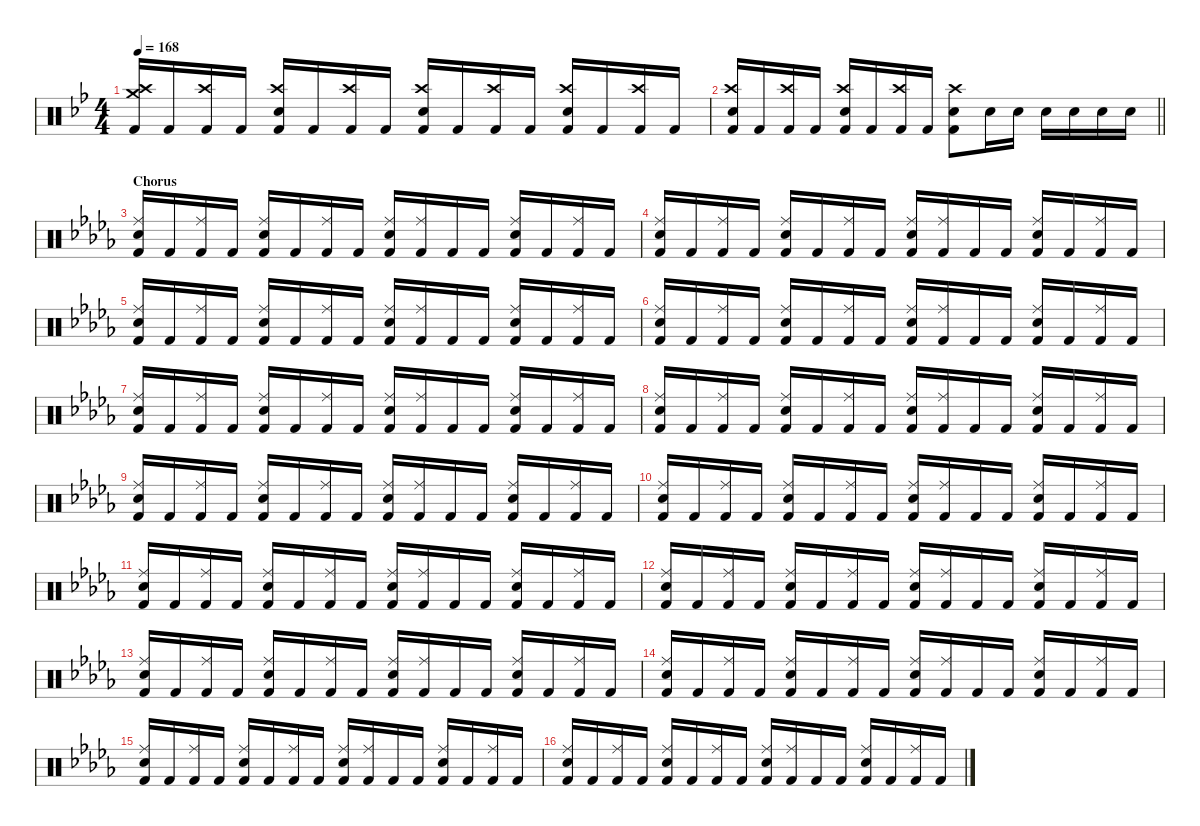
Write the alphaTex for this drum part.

\defaultSystemsLayout 4
\hideDynamics
\bracketExtendMode nobrackets
\singleTrackTrackNamePolicy hidden
\multiTrackTrackNamePolicy hidden
\firstSystemTrackNameMode fullname
\firstSystemTrackNameOrientation horizontal
\otherSystemsTrackNameOrientation horizontal
\track ("Percussion" "drm.") {instrument percussion}
\staff {score}
\articulation defaults
\ts (4 4)
\tempo 168
\clef neutral
\ks bb
("Crash high (hit)"{acc forcenatural} "Crash medium (hit)"{acc forcenatural} "Kick (hit) 2"{acc forcenatural}).16{dy f beam Up} "Kick (hit) 2"{acc forcenatural}.16{beam Up} ("Crash high (hit)"{acc forcenatural} "Kick (hit) 2"{acc forcenatural}).16{beam Up} "Kick (hit) 2"{acc forcenatural}.16{beam Up} ("Crash high (hit)"{acc forcenatural} "Snare (hit) 2"{acc forcenatural} "Kick (hit) 2"{acc forcenatural}).16{beam Up} "Kick (hit) 2"{acc forcenatural}.16{beam Up} ("Crash high (hit)"{acc forcenatural} "Kick (hit) 2"{acc forcenatural}).16{beam Up} "Kick (hit) 2"{acc forcenatural}.16{beam Up} ("Crash high (hit)"{acc forcenatural} "Snare (hit) 2"{acc forcenatural} "Kick (hit) 2"{acc forcenatural}).16{beam Up} "Kick (hit) 2"{acc forcenatural}.16{beam Up} ("Crash high (hit)"{acc forcenatural} "Kick (hit) 2"{acc forcenatural}).16{beam Up} "Kick (hit) 2"{acc forcenatural}.16{beam Up} ("Crash high (hit)"{acc forcenatural} "Snare (hit) 2"{acc forcenatural} "Kick (hit) 2"{acc forcenatural}).16{beam Up} "Kick (hit) 2"{acc forcenatural}.16{beam Up} ("Crash high (hit)"{acc forcenatural} "Kick (hit) 2"{acc forcenatural}).16{beam Up} "Kick (hit) 2"{acc forcenatural}.16{beam Up} |
\barLineRight lightlight
("Crash high (hit)"{acc forcenatural} "Snare (hit) 2"{acc forcenatural} "Kick (hit) 2"{acc forcenatural}).16{beam Up} "Kick (hit) 2"{acc forcenatural}.16{beam Up} ("Crash high (hit)"{acc forcenatural} "Kick (hit) 2"{acc forcenatural}).16{beam Up} "Kick (hit) 2"{acc forcenatural}.16{beam Up} ("Crash high (hit)"{acc forcenatural} "Snare (hit) 2"{acc forcenatural} "Kick (hit) 2"{acc forcenatural}).16{beam Up} "Kick (hit) 2"{acc forcenatural}.16{beam Up} ("Crash high (hit)"{acc forcenatural} "Kick (hit) 2"{acc forcenatural}).16{beam Up} "Kick (hit) 2"{acc forcenatural}.16{beam Up} ("Crash high (hit)"{acc forcenatural} "Snare (hit) 2"{acc forcenatural} "Kick (hit) 2"{acc forcenatural}).8{beam Down} "Snare (hit) 2"{acc forcenatural}.16{beam Down} "Snare (hit) 2"{acc forcenatural}.16{beam Down} "Snare (hit) 2"{acc forcenatural}.16{beam Down} "Snare (hit) 2"{acc forcenatural}.16{beam Down} "Snare (hit) 2"{acc forcenatural}.16{beam Down} "Snare (hit) 2"{acc forcenatural}.16{beam Down} |
\section ("" "Chorus")
\ks db
("Ride (middle)"{acc forcenatural} "Snare (hit) 2"{acc forcenatural} "Kick (hit) 2"{acc forcenatural}).16{beam Up} "Kick (hit) 2"{acc forcenatural}.16{beam Up} ("Ride (middle)"{acc forcenatural} "Kick (hit) 2"{acc forcenatural}).16{beam Up} "Kick (hit) 2"{acc forcenatural}.16{beam Up} ("Ride (middle)"{acc forcenatural} "Snare (hit) 2"{acc forcenatural} "Kick (hit) 2"{acc forcenatural}).16{beam Up} "Kick (hit) 2"{acc forcenatural}.16{beam Up} ("Ride (middle)"{acc forcenatural} "Kick (hit) 2"{acc forcenatural}).16{beam Up} "Kick (hit) 2"{acc forcenatural}.16{beam Up} ("Ride (middle)"{acc forcenatural} "Snare (hit) 2"{acc forcenatural} "Kick (hit) 2"{acc forcenatural}).16{beam Up} ("Ride (middle)"{acc forcenatural} "Kick (hit) 2"{acc forcenatural}).16{beam Up} "Kick (hit) 2"{acc forcenatural}.16{beam Up} "Kick (hit) 2"{acc forcenatural}.16{beam Up} ("Ride (middle)"{acc forcenatural} "Snare (hit) 2"{acc forcenatural} "Kick (hit) 2"{acc forcenatural}).16{beam Up} "Kick (hit) 2"{acc forcenatural}.16{beam Up} ("Ride (middle)"{acc forcenatural} "Kick (hit) 2"{acc forcenatural}).16{beam Up} "Kick (hit) 2"{acc forcenatural}.16{beam Up} |
("Ride (middle)"{acc forcenatural} "Snare (hit) 2"{acc forcenatural} "Kick (hit) 2"{acc forcenatural}).16{beam Up} "Kick (hit) 2"{acc forcenatural}.16{beam Up} ("Ride (middle)"{acc forcenatural} "Kick (hit) 2"{acc forcenatural}).16{beam Up} "Kick (hit) 2"{acc forcenatural}.16{beam Up} ("Ride (middle)"{acc forcenatural} "Snare (hit) 2"{acc forcenatural} "Kick (hit) 2"{acc forcenatural}).16{beam Up} "Kick (hit) 2"{acc forcenatural}.16{beam Up} ("Ride (middle)"{acc forcenatural} "Kick (hit) 2"{acc forcenatural}).16{beam Up} "Kick (hit) 2"{acc forcenatural}.16{beam Up} ("Ride (middle)"{acc forcenatural} "Snare (hit) 2"{acc forcenatural} "Kick (hit) 2"{acc forcenatural}).16{beam Up} ("Ride (middle)"{acc forcenatural} "Kick (hit) 2"{acc forcenatural}).16{beam Up} "Kick (hit) 2"{acc forcenatural}.16{beam Up} "Kick (hit) 2"{acc forcenatural}.16{beam Up} ("Ride (middle)"{acc forcenatural} "Snare (hit) 2"{acc forcenatural} "Kick (hit) 2"{acc forcenatural}).16{beam Up} "Kick (hit) 2"{acc forcenatural}.16{beam Up} ("Ride (middle)"{acc forcenatural} "Kick (hit) 2"{acc forcenatural}).16{beam Up} "Kick (hit) 2"{acc forcenatural}.16{beam Up} |
("Ride (middle)"{acc forcenatural} "Snare (hit) 2"{acc forcenatural} "Kick (hit) 2"{acc forcenatural}).16{beam Up} "Kick (hit) 2"{acc forcenatural}.16{beam Up} ("Ride (middle)"{acc forcenatural} "Kick (hit) 2"{acc forcenatural}).16{beam Up} "Kick (hit) 2"{acc forcenatural}.16{beam Up} ("Ride (middle)"{acc forcenatural} "Snare (hit) 2"{acc forcenatural} "Kick (hit) 2"{acc forcenatural}).16{beam Up} "Kick (hit) 2"{acc forcenatural}.16{beam Up} ("Ride (middle)"{acc forcenatural} "Kick (hit) 2"{acc forcenatural}).16{beam Up} "Kick (hit) 2"{acc forcenatural}.16{beam Up} ("Ride (middle)"{acc forcenatural} "Snare (hit) 2"{acc forcenatural} "Kick (hit) 2"{acc forcenatural}).16{beam Up} ("Ride (middle)"{acc forcenatural} "Kick (hit) 2"{acc forcenatural}).16{beam Up} "Kick (hit) 2"{acc forcenatural}.16{beam Up} "Kick (hit) 2"{acc forcenatural}.16{beam Up} ("Ride (middle)"{acc forcenatural} "Snare (hit) 2"{acc forcenatural} "Kick (hit) 2"{acc forcenatural}).16{beam Up} "Kick (hit) 2"{acc forcenatural}.16{beam Up} ("Ride (middle)"{acc forcenatural} "Kick (hit) 2"{acc forcenatural}).16{beam Up} "Kick (hit) 2"{acc forcenatural}.16{beam Up} |
("Ride (middle)"{acc forcenatural} "Snare (hit) 2"{acc forcenatural} "Kick (hit) 2"{acc forcenatural}).16{beam Up} "Kick (hit) 2"{acc forcenatural}.16{beam Up} ("Ride (middle)"{acc forcenatural} "Kick (hit) 2"{acc forcenatural}).16{beam Up} "Kick (hit) 2"{acc forcenatural}.16{beam Up} ("Ride (middle)"{acc forcenatural} "Snare (hit) 2"{acc forcenatural} "Kick (hit) 2"{acc forcenatural}).16{beam Up} "Kick (hit) 2"{acc forcenatural}.16{beam Up} ("Ride (middle)"{acc forcenatural} "Kick (hit) 2"{acc forcenatural}).16{beam Up} "Kick (hit) 2"{acc forcenatural}.16{beam Up} ("Ride (middle)"{acc forcenatural} "Snare (hit) 2"{acc forcenatural} "Kick (hit) 2"{acc forcenatural}).16{beam Up} ("Ride (middle)"{acc forcenatural} "Kick (hit) 2"{acc forcenatural}).16{beam Up} "Kick (hit) 2"{acc forcenatural}.16{beam Up} "Kick (hit) 2"{acc forcenatural}.16{beam Up} ("Ride (middle)"{acc forcenatural} "Snare (hit) 2"{acc forcenatural} "Kick (hit) 2"{acc forcenatural}).16{beam Up} "Kick (hit) 2"{acc forcenatural}.16{beam Up} ("Ride (middle)"{acc forcenatural} "Kick (hit) 2"{acc forcenatural}).16{beam Up} "Kick (hit) 2"{acc forcenatural}.16{beam Up} |
("Ride (middle)"{acc forcenatural} "Snare (hit) 2"{acc forcenatural} "Kick (hit) 2"{acc forcenatural}).16{beam Up} "Kick (hit) 2"{acc forcenatural}.16{beam Up} ("Ride (middle)"{acc forcenatural} "Kick (hit) 2"{acc forcenatural}).16{beam Up} "Kick (hit) 2"{acc forcenatural}.16{beam Up} ("Ride (middle)"{acc forcenatural} "Snare (hit) 2"{acc forcenatural} "Kick (hit) 2"{acc forcenatural}).16{beam Up} "Kick (hit) 2"{acc forcenatural}.16{beam Up} ("Ride (middle)"{acc forcenatural} "Kick (hit) 2"{acc forcenatural}).16{beam Up} "Kick (hit) 2"{acc forcenatural}.16{beam Up} ("Ride (middle)"{acc forcenatural} "Snare (hit) 2"{acc forcenatural} "Kick (hit) 2"{acc forcenatural}).16{beam Up} ("Ride (middle)"{acc forcenatural} "Kick (hit) 2"{acc forcenatural}).16{beam Up} "Kick (hit) 2"{acc forcenatural}.16{beam Up} "Kick (hit) 2"{acc forcenatural}.16{beam Up} ("Ride (middle)"{acc forcenatural} "Snare (hit) 2"{acc forcenatural} "Kick (hit) 2"{acc forcenatural}).16{beam Up} "Kick (hit) 2"{acc forcenatural}.16{beam Up} ("Ride (middle)"{acc forcenatural} "Kick (hit) 2"{acc forcenatural}).16{beam Up} "Kick (hit) 2"{acc forcenatural}.16{beam Up} |
("Ride (middle)"{acc forcenatural} "Snare (hit) 2"{acc forcenatural} "Kick (hit) 2"{acc forcenatural}).16{beam Up} "Kick (hit) 2"{acc forcenatural}.16{beam Up} ("Ride (middle)"{acc forcenatural} "Kick (hit) 2"{acc forcenatural}).16{beam Up} "Kick (hit) 2"{acc forcenatural}.16{beam Up} ("Ride (middle)"{acc forcenatural} "Snare (hit) 2"{acc forcenatural} "Kick (hit) 2"{acc forcenatural}).16{beam Up} "Kick (hit) 2"{acc forcenatural}.16{beam Up} ("Ride (middle)"{acc forcenatural} "Kick (hit) 2"{acc forcenatural}).16{beam Up} "Kick (hit) 2"{acc forcenatural}.16{beam Up} ("Ride (middle)"{acc forcenatural} "Snare (hit) 2"{acc forcenatural} "Kick (hit) 2"{acc forcenatural}).16{beam Up} ("Ride (middle)"{acc forcenatural} "Kick (hit) 2"{acc forcenatural}).16{beam Up} "Kick (hit) 2"{acc forcenatural}.16{beam Up} "Kick (hit) 2"{acc forcenatural}.16{beam Up} ("Ride (middle)"{acc forcenatural} "Snare (hit) 2"{acc forcenatural} "Kick (hit) 2"{acc forcenatural}).16{beam Up} "Kick (hit) 2"{acc forcenatural}.16{beam Up} ("Ride (middle)"{acc forcenatural} "Kick (hit) 2"{acc forcenatural}).16{beam Up} "Kick (hit) 2"{acc forcenatural}.16{beam Up} |
("Ride (middle)"{acc forcenatural} "Snare (hit) 2"{acc forcenatural} "Kick (hit) 2"{acc forcenatural}).16{beam Up} "Kick (hit) 2"{acc forcenatural}.16{beam Up} ("Ride (middle)"{acc forcenatural} "Kick (hit) 2"{acc forcenatural}).16{beam Up} "Kick (hit) 2"{acc forcenatural}.16{beam Up} ("Ride (middle)"{acc forcenatural} "Snare (hit) 2"{acc forcenatural} "Kick (hit) 2"{acc forcenatural}).16{beam Up} "Kick (hit) 2"{acc forcenatural}.16{beam Up} ("Ride (middle)"{acc forcenatural} "Kick (hit) 2"{acc forcenatural}).16{beam Up} "Kick (hit) 2"{acc forcenatural}.16{beam Up} ("Ride (middle)"{acc forcenatural} "Snare (hit) 2"{acc forcenatural} "Kick (hit) 2"{acc forcenatural}).16{beam Up} ("Ride (middle)"{acc forcenatural} "Kick (hit) 2"{acc forcenatural}).16{beam Up} "Kick (hit) 2"{acc forcenatural}.16{beam Up} "Kick (hit) 2"{acc forcenatural}.16{beam Up} ("Ride (middle)"{acc forcenatural} "Snare (hit) 2"{acc forcenatural} "Kick (hit) 2"{acc forcenatural}).16{beam Up} "Kick (hit) 2"{acc forcenatural}.16{beam Up} ("Ride (middle)"{acc forcenatural} "Kick (hit) 2"{acc forcenatural}).16{beam Up} "Kick (hit) 2"{acc forcenatural}.16{beam Up} |
("Ride (middle)"{acc forcenatural} "Snare (hit) 2"{acc forcenatural} "Kick (hit) 2"{acc forcenatural}).16{beam Up} "Kick (hit) 2"{acc forcenatural}.16{beam Up} ("Ride (middle)"{acc forcenatural} "Kick (hit) 2"{acc forcenatural}).16{beam Up} "Kick (hit) 2"{acc forcenatural}.16{beam Up} ("Ride (middle)"{acc forcenatural} "Snare (hit) 2"{acc forcenatural} "Kick (hit) 2"{acc forcenatural}).16{beam Up} "Kick (hit) 2"{acc forcenatural}.16{beam Up} ("Ride (middle)"{acc forcenatural} "Kick (hit) 2"{acc forcenatural}).16{beam Up} "Kick (hit) 2"{acc forcenatural}.16{beam Up} ("Ride (middle)"{acc forcenatural} "Snare (hit) 2"{acc forcenatural} "Kick (hit) 2"{acc forcenatural}).16{beam Up} ("Ride (middle)"{acc forcenatural} "Kick (hit) 2"{acc forcenatural}).16{beam Up} "Kick (hit) 2"{acc forcenatural}.16{beam Up} "Kick (hit) 2"{acc forcenatural}.16{beam Up} ("Ride (middle)"{acc forcenatural} "Snare (hit) 2"{acc forcenatural} "Kick (hit) 2"{acc forcenatural}).16{beam Up} "Kick (hit) 2"{acc forcenatural}.16{beam Up} ("Ride (middle)"{acc forcenatural} "Kick (hit) 2"{acc forcenatural}).16{beam Up} "Kick (hit) 2"{acc forcenatural}.16{beam Up} |
("Ride (middle)"{acc forcenatural} "Snare (hit) 2"{acc forcenatural} "Kick (hit) 2"{acc forcenatural}).16{beam Up} "Kick (hit) 2"{acc forcenatural}.16{beam Up} ("Ride (middle)"{acc forcenatural} "Kick (hit) 2"{acc forcenatural}).16{beam Up} "Kick (hit) 2"{acc forcenatural}.16{beam Up} ("Ride (middle)"{acc forcenatural} "Snare (hit) 2"{acc forcenatural} "Kick (hit) 2"{acc forcenatural}).16{beam Up} "Kick (hit) 2"{acc forcenatural}.16{beam Up} ("Ride (middle)"{acc forcenatural} "Kick (hit) 2"{acc forcenatural}).16{beam Up} "Kick (hit) 2"{acc forcenatural}.16{beam Up} ("Ride (middle)"{acc forcenatural} "Snare (hit) 2"{acc forcenatural} "Kick (hit) 2"{acc forcenatural}).16{beam Up} ("Ride (middle)"{acc forcenatural} "Kick (hit) 2"{acc forcenatural}).16{beam Up} "Kick (hit) 2"{acc forcenatural}.16{beam Up} "Kick (hit) 2"{acc forcenatural}.16{beam Up} ("Ride (middle)"{acc forcenatural} "Snare (hit) 2"{acc forcenatural} "Kick (hit) 2"{acc forcenatural}).16{beam Up} "Kick (hit) 2"{acc forcenatural}.16{beam Up} ("Ride (middle)"{acc forcenatural} "Kick (hit) 2"{acc forcenatural}).16{beam Up} "Kick (hit) 2"{acc forcenatural}.16{beam Up} |
("Ride (middle)"{acc forcenatural} "Snare (hit) 2"{acc forcenatural} "Kick (hit) 2"{acc forcenatural}).16{beam Up} "Kick (hit) 2"{acc forcenatural}.16{beam Up} ("Ride (middle)"{acc forcenatural} "Kick (hit) 2"{acc forcenatural}).16{beam Up} "Kick (hit) 2"{acc forcenatural}.16{beam Up} ("Ride (middle)"{acc forcenatural} "Snare (hit) 2"{acc forcenatural} "Kick (hit) 2"{acc forcenatural}).16{beam Up} "Kick (hit) 2"{acc forcenatural}.16{beam Up} ("Ride (middle)"{acc forcenatural} "Kick (hit) 2"{acc forcenatural}).16{beam Up} "Kick (hit) 2"{acc forcenatural}.16{beam Up} ("Ride (middle)"{acc forcenatural} "Snare (hit) 2"{acc forcenatural} "Kick (hit) 2"{acc forcenatural}).16{beam Up} ("Ride (middle)"{acc forcenatural} "Kick (hit) 2"{acc forcenatural}).16{beam Up} "Kick (hit) 2"{acc forcenatural}.16{beam Up} "Kick (hit) 2"{acc forcenatural}.16{beam Up} ("Ride (middle)"{acc forcenatural} "Snare (hit) 2"{acc forcenatural} "Kick (hit) 2"{acc forcenatural}).16{beam Up} "Kick (hit) 2"{acc forcenatural}.16{beam Up} ("Ride (middle)"{acc forcenatural} "Kick (hit) 2"{acc forcenatural}).16{beam Up} "Kick (hit) 2"{acc forcenatural}.16{beam Up} |
("Ride (middle)"{acc forcenatural} "Snare (hit) 2"{acc forcenatural} "Kick (hit) 2"{acc forcenatural}).16{beam Up} "Kick (hit) 2"{acc forcenatural}.16{beam Up} ("Ride (middle)"{acc forcenatural} "Kick (hit) 2"{acc forcenatural}).16{beam Up} "Kick (hit) 2"{acc forcenatural}.16{beam Up} ("Ride (middle)"{acc forcenatural} "Snare (hit) 2"{acc forcenatural} "Kick (hit) 2"{acc forcenatural}).16{beam Up} "Kick (hit) 2"{acc forcenatural}.16{beam Up} ("Ride (middle)"{acc forcenatural} "Kick (hit) 2"{acc forcenatural}).16{beam Up} "Kick (hit) 2"{acc forcenatural}.16{beam Up} ("Ride (middle)"{acc forcenatural} "Snare (hit) 2"{acc forcenatural} "Kick (hit) 2"{acc forcenatural}).16{beam Up} ("Ride (middle)"{acc forcenatural} "Kick (hit) 2"{acc forcenatural}).16{beam Up} "Kick (hit) 2"{acc forcenatural}.16{beam Up} "Kick (hit) 2"{acc forcenatural}.16{beam Up} ("Ride (middle)"{acc forcenatural} "Snare (hit) 2"{acc forcenatural} "Kick (hit) 2"{acc forcenatural}).16{beam Up} "Kick (hit) 2"{acc forcenatural}.16{beam Up} ("Ride (middle)"{acc forcenatural} "Kick (hit) 2"{acc forcenatural}).16{beam Up} "Kick (hit) 2"{acc forcenatural}.16{beam Up} |
("Ride (middle)"{acc forcenatural} "Snare (hit) 2"{acc forcenatural} "Kick (hit) 2"{acc forcenatural}).16{beam Up} "Kick (hit) 2"{acc forcenatural}.16{beam Up} ("Ride (middle)"{acc forcenatural} "Kick (hit) 2"{acc forcenatural}).16{beam Up} "Kick (hit) 2"{acc forcenatural}.16{beam Up} ("Ride (middle)"{acc forcenatural} "Snare (hit) 2"{acc forcenatural} "Kick (hit) 2"{acc forcenatural}).16{beam Up} "Kick (hit) 2"{acc forcenatural}.16{beam Up} ("Ride (middle)"{acc forcenatural} "Kick (hit) 2"{acc forcenatural}).16{beam Up} "Kick (hit) 2"{acc forcenatural}.16{beam Up} ("Ride (middle)"{acc forcenatural} "Snare (hit) 2"{acc forcenatural} "Kick (hit) 2"{acc forcenatural}).16{beam Up} ("Ride (middle)"{acc forcenatural} "Kick (hit) 2"{acc forcenatural}).16{beam Up} "Kick (hit) 2"{acc forcenatural}.16{beam Up} "Kick (hit) 2"{acc forcenatural}.16{beam Up} ("Ride (middle)"{acc forcenatural} "Snare (hit) 2"{acc forcenatural} "Kick (hit) 2"{acc forcenatural}).16{beam Up} "Kick (hit) 2"{acc forcenatural}.16{beam Up} ("Ride (middle)"{acc forcenatural} "Kick (hit) 2"{acc forcenatural}).16{beam Up} "Kick (hit) 2"{acc forcenatural}.16{beam Up} |
("Ride (middle)"{acc forcenatural} "Snare (hit) 2"{acc forcenatural} "Kick (hit) 2"{acc forcenatural}).16{beam Up} "Kick (hit) 2"{acc forcenatural}.16{beam Up} ("Ride (middle)"{acc forcenatural} "Kick (hit) 2"{acc forcenatural}).16{beam Up} "Kick (hit) 2"{acc forcenatural}.16{beam Up} ("Ride (middle)"{acc forcenatural} "Snare (hit) 2"{acc forcenatural} "Kick (hit) 2"{acc forcenatural}).16{beam Up} "Kick (hit) 2"{acc forcenatural}.16{beam Up} ("Ride (middle)"{acc forcenatural} "Kick (hit) 2"{acc forcenatural}).16{beam Up} "Kick (hit) 2"{acc forcenatural}.16{beam Up} ("Ride (middle)"{acc forcenatural} "Snare (hit) 2"{acc forcenatural} "Kick (hit) 2"{acc forcenatural}).16{beam Up} ("Ride (middle)"{acc forcenatural} "Kick (hit) 2"{acc forcenatural}).16{beam Up} "Kick (hit) 2"{acc forcenatural}.16{beam Up} "Kick (hit) 2"{acc forcenatural}.16{beam Up} ("Ride (middle)"{acc forcenatural} "Snare (hit) 2"{acc forcenatural} "Kick (hit) 2"{acc forcenatural}).16{beam Up} "Kick (hit) 2"{acc forcenatural}.16{beam Up} ("Ride (middle)"{acc forcenatural} "Kick (hit) 2"{acc forcenatural}).16{beam Up} "Kick (hit) 2"{acc forcenatural}.16{beam Up} |
("Ride (middle)"{acc forcenatural} "Snare (hit) 2"{acc forcenatural} "Kick (hit) 2"{acc forcenatural}).16{beam Up} "Kick (hit) 2"{acc forcenatural}.16{beam Up} ("Ride (middle)"{acc forcenatural} "Kick (hit) 2"{acc forcenatural}).16{beam Up} "Kick (hit) 2"{acc forcenatural}.16{beam Up} ("Ride (middle)"{acc forcenatural} "Snare (hit) 2"{acc forcenatural} "Kick (hit) 2"{acc forcenatural}).16{beam Up} "Kick (hit) 2"{acc forcenatural}.16{beam Up} ("Ride (middle)"{acc forcenatural} "Kick (hit) 2"{acc forcenatural}).16{beam Up} "Kick (hit) 2"{acc forcenatural}.16{beam Up} ("Ride (middle)"{acc forcenatural} "Snare (hit) 2"{acc forcenatural} "Kick (hit) 2"{acc forcenatural}).16{beam Up} ("Ride (middle)"{acc forcenatural} "Kick (hit) 2"{acc forcenatural}).16{beam Up} "Kick (hit) 2"{acc forcenatural}.16{beam Up} "Kick (hit) 2"{acc forcenatural}.16{beam Up} ("Ride (middle)"{acc forcenatural} "Snare (hit) 2"{acc forcenatural} "Kick (hit) 2"{acc forcenatural}).16{beam Up} "Kick (hit) 2"{acc forcenatural}.16{beam Up} ("Ride (middle)"{acc forcenatural} "Kick (hit) 2"{acc forcenatural}).16{beam Up} "Kick (hit) 2"{acc forcenatural}.16{beam Up}
